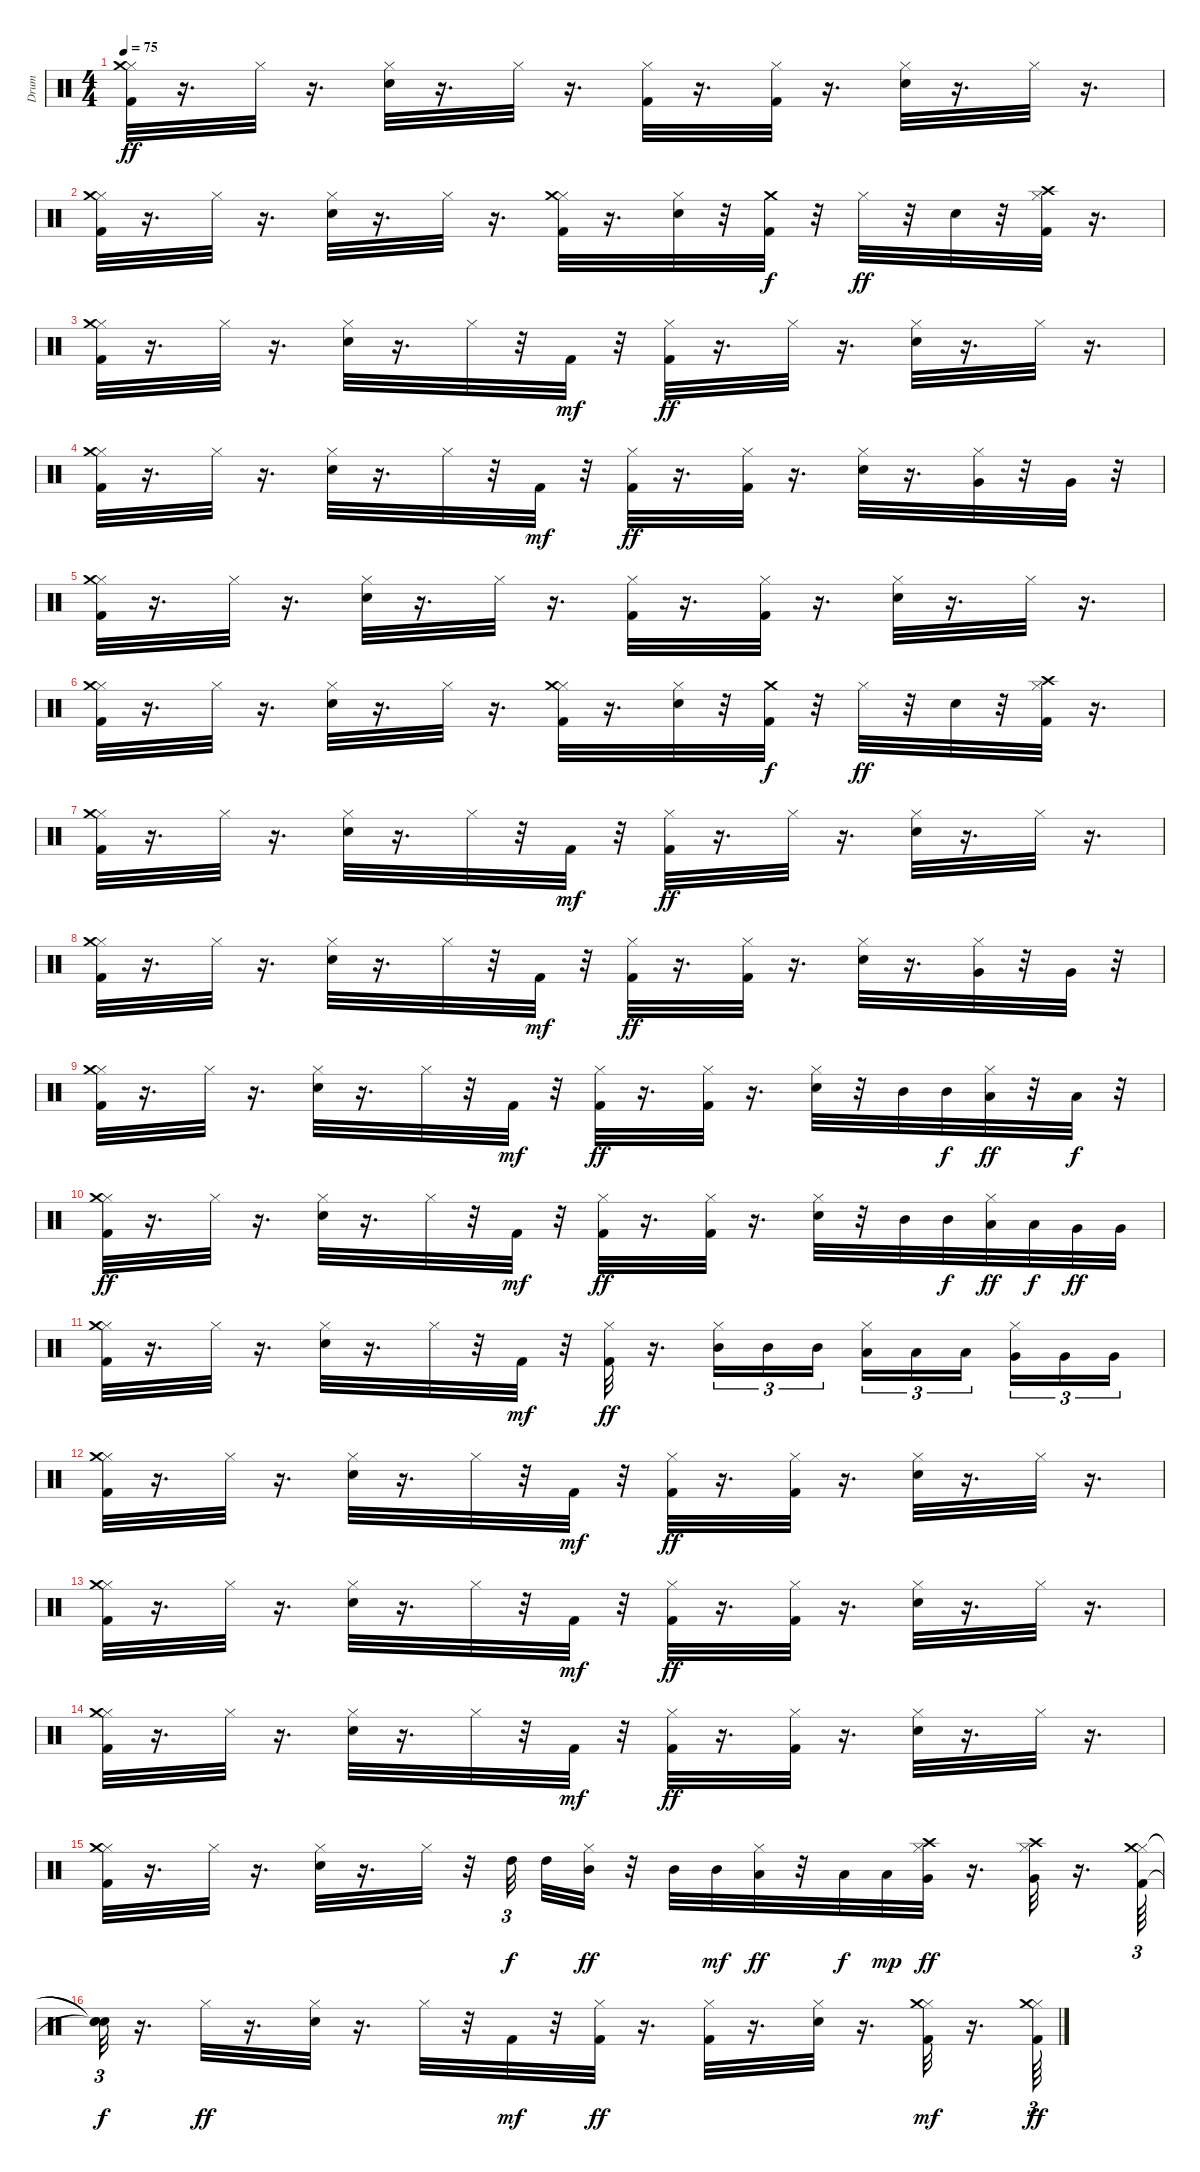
\track ("Drum" "Drum") {instrument percussion}
\staff {score}
\articulation defaults
\ts (4 4)
\tempo 75
\clef neutral
\ks c
("Kick (hit) 2" "Hi-Hat (closed)" "Crash medium (hit)").32{dy ff} r.16{d} "Hi-Hat (closed)".32 r.16{d} ("Hi-Hat (closed)" "Snare (hit) 2").32 r.16{d} "Hi-Hat (closed)".32 r.16{d} ("Kick (hit) 2" "Hi-Hat (closed)").32 r.16{d} ("Kick (hit) 2" "Hi-Hat (closed)").32 r.16{d} ("Hi-Hat (closed)" "Snare (hit) 2").32 r.16{d} "Hi-Hat (closed)".32 r.16{d} |
("Kick (hit) 2" "Hi-Hat (closed)" "Crash medium (hit)").32 r.16{d} "Hi-Hat (closed)".32 r.16{d} ("Hi-Hat (closed)" "Snare (hit) 2").32 r.16{d} "Hi-Hat (closed)".32 r.16{d} ("Kick (hit) 2" "Hi-Hat (closed)" "Crash medium (hit)").32 r.16{d} ("Hi-Hat (closed)" "Snare (hit) 2").32 r.32 ("Kick (hit) 2" "Crash medium (hit)").32{dy f} r.32 "Hi-Hat (closed)".32{dy ff} r.32 "Snare (hit) 2".32 r.32 ("Kick (hit) 2" "Hi-Hat (closed)" "Crash high (hit)").32 r.16{d} |
("Kick (hit) 2" "Hi-Hat (closed)" "Crash medium (hit)").32 r.16{d} "Hi-Hat (closed)".32 r.16{d} ("Hi-Hat (closed)" "Snare (hit) 2").32 r.16{d} "Hi-Hat (closed)".32 r.32 "Kick (hit) 2".32{dy mf} r.32 ("Kick (hit) 2" "Hi-Hat (closed)").32{dy ff} r.16{d} "Hi-Hat (closed)".32 r.16{d} ("Hi-Hat (closed)" "Snare (hit) 2").32 r.16{d} "Hi-Hat (closed)".32 r.16{d} |
("Kick (hit) 2" "Hi-Hat (closed)" "Crash medium (hit)").32 r.16{d} "Hi-Hat (closed)".32 r.16{d} ("Hi-Hat (closed)" "Snare (hit) 2").32 r.16{d} "Hi-Hat (closed)".32 r.32 "Kick (hit) 2".32{dy mf} r.32 ("Kick (hit) 2" "Hi-Hat (closed)").32{dy ff} r.16{d} ("Kick (hit) 2" "Hi-Hat (closed)").32 r.16{d} ("Hi-Hat (closed)" "Snare (hit) 2").32 r.16{d} ("Hi-Hat (closed)" "Very Low Tom (hit)").32 r.32 "Very Low Tom (hit)".32 r.32 |
("Kick (hit) 2" "Hi-Hat (closed)" "Crash medium (hit)").32 r.16{d} "Hi-Hat (closed)".32 r.16{d} ("Hi-Hat (closed)" "Snare (hit) 2").32 r.16{d} "Hi-Hat (closed)".32 r.16{d} ("Kick (hit) 2" "Hi-Hat (closed)").32 r.16{d} ("Kick (hit) 2" "Hi-Hat (closed)").32 r.16{d} ("Hi-Hat (closed)" "Snare (hit) 2").32 r.16{d} "Hi-Hat (closed)".32 r.16{d} |
("Kick (hit) 2" "Hi-Hat (closed)" "Crash medium (hit)").32 r.16{d} "Hi-Hat (closed)".32 r.16{d} ("Hi-Hat (closed)" "Snare (hit) 2").32 r.16{d} "Hi-Hat (closed)".32 r.16{d} ("Kick (hit) 2" "Hi-Hat (closed)" "Crash medium (hit)").32 r.16{d} ("Hi-Hat (closed)" "Snare (hit) 2").32 r.32 ("Kick (hit) 2" "Crash medium (hit)").32{dy f} r.32 "Hi-Hat (closed)".32{dy ff} r.32 "Snare (hit) 2".32 r.32 ("Kick (hit) 2" "Hi-Hat (closed)" "Crash high (hit)").32 r.16{d} |
("Kick (hit) 2" "Hi-Hat (closed)" "Crash medium (hit)").32 r.16{d} "Hi-Hat (closed)".32 r.16{d} ("Hi-Hat (closed)" "Snare (hit) 2").32 r.16{d} "Hi-Hat (closed)".32 r.32 "Kick (hit) 2".32{dy mf} r.32 ("Kick (hit) 2" "Hi-Hat (closed)").32{dy ff} r.16{d} "Hi-Hat (closed)".32 r.16{d} ("Hi-Hat (closed)" "Snare (hit) 2").32 r.16{d} "Hi-Hat (closed)".32 r.16{d} |
("Kick (hit) 2" "Hi-Hat (closed)" "Crash medium (hit)").32 r.16{d} "Hi-Hat (closed)".32 r.16{d} ("Hi-Hat (closed)" "Snare (hit) 2").32 r.16{d} "Hi-Hat (closed)".32 r.32 "Kick (hit) 2".32{dy mf} r.32 ("Kick (hit) 2" "Hi-Hat (closed)").32{dy ff} r.16{d} ("Kick (hit) 2" "Hi-Hat (closed)").32 r.16{d} ("Hi-Hat (closed)" "Snare (hit) 2").32 r.16{d} ("Hi-Hat (closed)" "Very Low Tom (hit)").32 r.32 "Very Low Tom (hit)".32 r.32 |
("Kick (hit) 2" "Hi-Hat (closed)" "Crash medium (hit)").32 r.16{d} "Hi-Hat (closed)".32 r.16{d} ("Hi-Hat (closed)" "Snare (hit) 2").32 r.16{d} "Hi-Hat (closed)".32 r.32 "Kick (hit) 2".32{dy mf} r.32 ("Kick (hit) 2" "Hi-Hat (closed)").32{dy ff} r.16{d} ("Kick (hit) 2" "Hi-Hat (closed)").32 r.16{d} ("Hi-Hat (closed)" "Snare (hit) 2").32 r.32 "Mid Tom (hit)".32 "Mid Tom (hit)".32{dy f} ("Hi-Hat (closed)" "Low Tom (hit)").32{dy ff} r.32 "Low Tom (hit)".32{dy f} r.32 |
("Kick (hit) 2" "Hi-Hat (closed)" "Crash medium (hit)").32{dy ff} r.16{d} "Hi-Hat (closed)".32 r.16{d} ("Hi-Hat (closed)" "Snare (hit) 2").32 r.16{d} "Hi-Hat (closed)".32 r.32 "Kick (hit) 2".32{dy mf} r.32 ("Kick (hit) 2" "Hi-Hat (closed)").32{dy ff} r.16{d} ("Kick (hit) 2" "Hi-Hat (closed)").32 r.16{d} ("Hi-Hat (closed)" "Snare (hit) 2").32 r.32 "Mid Tom (hit)".32 "Mid Tom (hit)".32{dy f} ("Hi-Hat (closed)" "Low Tom (hit)").32{dy ff} "Low Tom (hit)".32{dy f} "Very Low Tom (hit)".32{dy ff} "Very Low Tom (hit)".32 |
("Kick (hit) 2" "Hi-Hat (closed)" "Crash medium (hit)").32 r.16{d} "Hi-Hat (closed)".32 r.16{d} ("Hi-Hat (closed)" "Snare (hit) 2").32 r.16{d} "Hi-Hat (closed)".32 r.32 "Kick (hit) 2".32{dy mf} r.32 ("Kick (hit) 2" "Hi-Hat (closed)").32{dy ff} r.16{d} ("Hi-Hat (closed)" "Mid Tom (hit)").16{tu (3 2)} "Mid Tom (hit)".16{tu (3 2)} "Mid Tom (hit)".16{tu (3 2)} ("Hi-Hat (closed)" "Low Tom (hit)").16{tu (3 2)} "Low Tom (hit)".16{tu (3 2)} "Low Tom (hit)".16{tu (3 2) beam splitsecondary} ("Hi-Hat (closed)" "Very Low Tom (hit)").16{tu (3 2)} "Very Low Tom (hit)".16{tu (3 2)} "Very Low Tom (hit)".16{tu (3 2)} |
("Kick (hit) 2" "Hi-Hat (closed)" "Crash medium (hit)").32 r.16{d} "Hi-Hat (closed)".32 r.16{d} ("Hi-Hat (closed)" "Snare (hit) 2").32 r.16{d} "Hi-Hat (closed)".32 r.32 "Kick (hit) 2".32{dy mf} r.32 ("Kick (hit) 2" "Hi-Hat (closed)").32{dy ff} r.16{d} ("Kick (hit) 2" "Hi-Hat (closed)").32 r.16{d} ("Hi-Hat (closed)" "Snare (hit) 2").32 r.16{d} "Hi-Hat (closed)".32 r.16{d} |
("Kick (hit) 2" "Hi-Hat (closed)" "Crash medium (hit)").32 r.16{d} "Hi-Hat (closed)".32 r.16{d} ("Hi-Hat (closed)" "Snare (hit) 2").32 r.16{d} "Hi-Hat (closed)".32 r.32 "Kick (hit) 2".32{dy mf} r.32 ("Kick (hit) 2" "Hi-Hat (closed)").32{dy ff} r.16{d} ("Kick (hit) 2" "Hi-Hat (closed)").32 r.16{d} ("Hi-Hat (closed)" "Snare (hit) 2").32 r.16{d} "Hi-Hat (closed)".32 r.16{d} |
("Kick (hit) 2" "Hi-Hat (closed)" "Crash medium (hit)").32 r.16{d} "Hi-Hat (closed)".32 r.16{d} ("Hi-Hat (closed)" "Snare (hit) 2").32 r.16{d} "Hi-Hat (closed)".32 r.32 "Kick (hit) 2".32{dy mf} r.32 ("Kick (hit) 2" "Hi-Hat (closed)").32{dy ff} r.16{d} ("Kick (hit) 2" "Hi-Hat (closed)").32 r.16{d} ("Hi-Hat (closed)" "Snare (hit) 2").32 r.16{d} "Hi-Hat (closed)".32 r.16{d} |
("Kick (hit) 2" "Hi-Hat (closed)" "Crash medium (hit)").32 r.16{d} "Hi-Hat (closed)".32 r.16{d} ("Hi-Hat (closed)" "Snare (hit) 2").32 r.16{d} "Hi-Hat (closed)".32 r.32 "High Tom (hit)".32{tu (3 2) dy f beam splitsecondary} "High Tom (hit)".32 ("Hi-Hat (closed)" "Mid Tom (hit)").32{dy ff} r.32 "Mid Tom (hit)".32 "Mid Tom (hit)".32{dy mf} ("Hi-Hat (closed)" "Low Tom (hit)").32{dy ff} r.32 "Low Tom (hit)".32{dy f} "Low Tom (hit)".32{dy mp} ("Hi-Hat (closed)" "Crash high (hit)" "Very Low Tom (hit)").32{dy ff} r.16{d} ("Hi-Hat (closed)" "Crash high (hit)" "Very Low Tom (hit)").32 r.16{d} ("Kick (hit) 2" "Hi-Hat (closed)" "Crash medium (hit)").64{tu (3 2)} |
("Snare (hit)"{t} "Snare (hit)"{t} "Snare (hit)"{t}).32{tu (3 2) dy f} r.16{d} "Hi-Hat (closed)".32{dy ff} r.16{d} ("Hi-Hat (closed)" "Snare (hit) 2").32 r.16{d} "Hi-Hat (closed)".32 r.32 "Kick (hit) 2".32{dy mf} r.32 ("Kick (hit) 2" "Hi-Hat (closed)").32{dy ff} r.16{d} ("Kick (hit) 2" "Hi-Hat (closed)").32 r.16{d} ("Hi-Hat (closed)" "Snare (hit) 2").32 r.16{d} ("Kick (hit) 2" "Hi-Hat (closed)" "Crash medium (hit)").32{dy mf} r.16{d} ("Kick (hit) 2" "Hi-Hat (closed)" "Crash medium (hit)").64{tu (3 2) dy ff}
